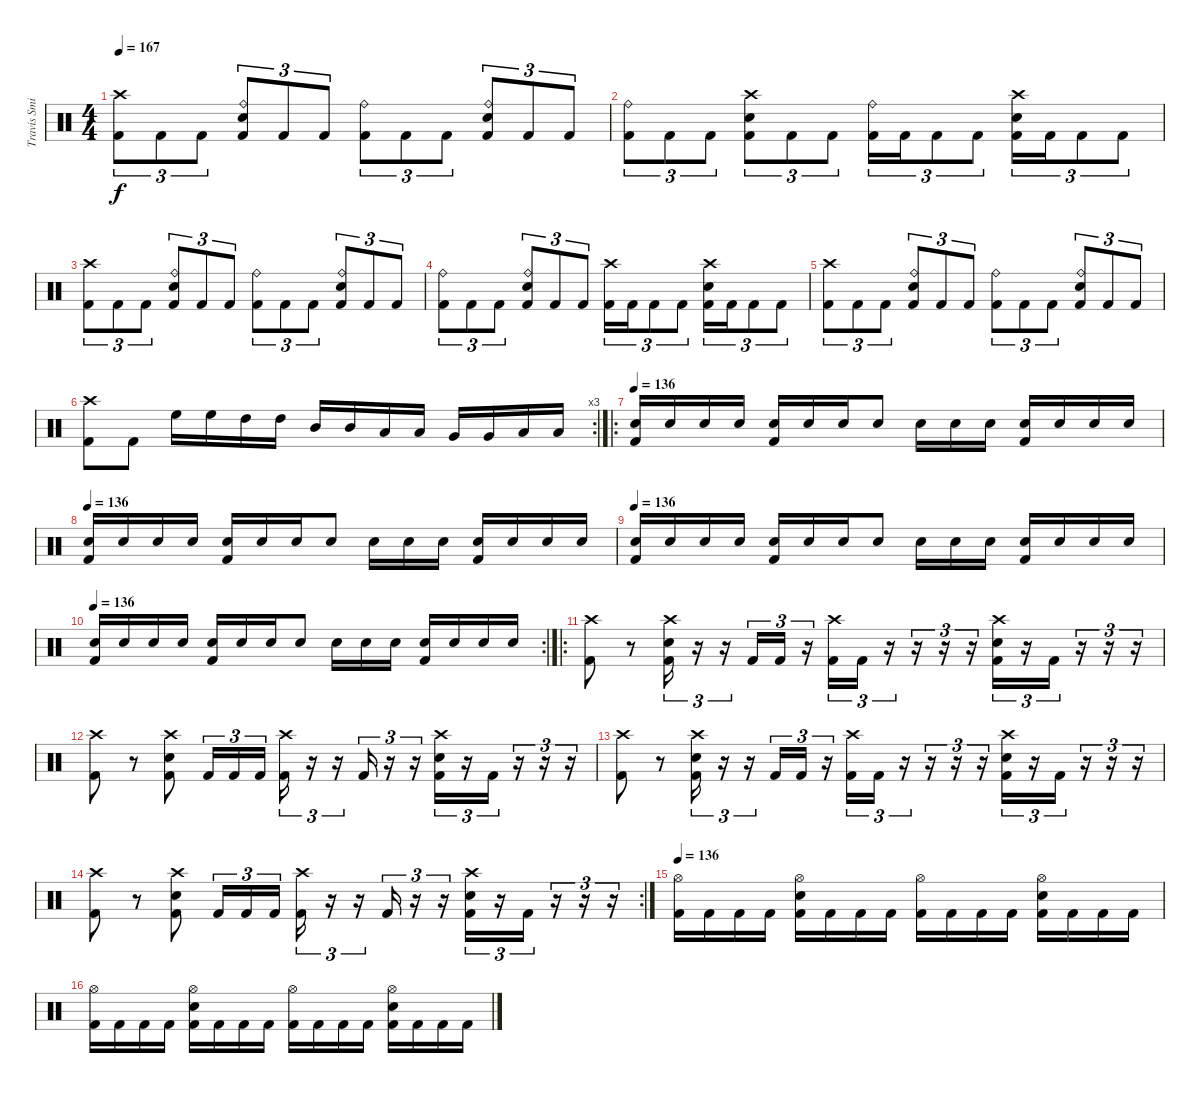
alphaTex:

\track ("Travis Smith" "Travis Smi") {instrument percussion}
\staff {score}
\articulation defaults
\ts (4 4)
\tempo 167
\clef neutral
\ks c
("Crash high (hit)" "Kick (hit) 2").8{tu (3 2) dy f} "Kick (hit) 2".8{tu (3 2)} "Kick (hit) 2".8{tu (3 2)} ("Ride (bell)" "Snare (hit) 2" "Kick (hit) 2").8{tu (3 2)} "Kick (hit) 2".8{tu (3 2)} "Kick (hit) 2".8{tu (3 2)} ("Ride (bell)" "Kick (hit) 2").8{tu (3 2)} "Kick (hit) 2".8{tu (3 2)} "Kick (hit) 2".8{tu (3 2)} ("Ride (bell)" "Snare (hit) 2" "Kick (hit) 2").8{tu (3 2)} "Kick (hit) 2".8{tu (3 2)} "Kick (hit) 2".8{tu (3 2)} |
("Ride (bell)" "Kick (hit) 2").8{tu (3 2)} "Kick (hit) 2".8{tu (3 2)} "Kick (hit) 2".8{tu (3 2)} ("Crash high (hit)" "Snare (hit) 2" "Kick (hit) 2").8{tu (3 2)} "Kick (hit) 2".8{tu (3 2)} "Kick (hit) 2".8{tu (3 2)} ("Ride (bell)" "Kick (hit) 2").16{tu (3 2)} "Kick (hit) 2".16{tu (3 2)} "Kick (hit) 2".8{tu (3 2)} "Kick (hit) 2".8{tu (3 2)} ("Crash high (hit)" "Snare (hit) 2" "Kick (hit) 2").16{tu (3 2)} "Kick (hit) 2".16{tu (3 2)} "Kick (hit) 2".8{tu (3 2)} "Kick (hit) 2".8{tu (3 2)} |
("Crash high (hit)" "Kick (hit) 2").8{tu (3 2)} "Kick (hit) 2".8{tu (3 2)} "Kick (hit) 2".8{tu (3 2)} ("Ride (bell)" "Snare (hit) 2" "Kick (hit) 2").8{tu (3 2)} "Kick (hit) 2".8{tu (3 2)} "Kick (hit) 2".8{tu (3 2)} ("Ride (bell)" "Kick (hit) 2").8{tu (3 2)} "Kick (hit) 2".8{tu (3 2)} "Kick (hit) 2".8{tu (3 2)} ("Ride (bell)" "Snare (hit) 2" "Kick (hit) 2").8{tu (3 2)} "Kick (hit) 2".8{tu (3 2)} "Kick (hit) 2".8{tu (3 2)} |
("Ride (bell)" "Kick (hit) 2").8{tu (3 2)} "Kick (hit) 2".8{tu (3 2)} "Kick (hit) 2".8{tu (3 2)} ("Ride (bell)" "Snare (hit) 2" "Kick (hit) 2").8{tu (3 2)} "Kick (hit) 2".8{tu (3 2)} "Kick (hit) 2".8{tu (3 2)} ("Crash high (hit)" "Kick (hit) 2").16{tu (3 2)} "Kick (hit) 2".16{tu (3 2)} "Kick (hit) 2".8{tu (3 2)} "Kick (hit) 2".8{tu (3 2)} ("Crash high (hit)" "Snare (hit) 2" "Kick (hit) 2").16{tu (3 2)} "Kick (hit) 2".16{tu (3 2)} "Kick (hit) 2".8{tu (3 2)} "Kick (hit) 2".8{tu (3 2)} |
("Crash high (hit)" "Kick (hit) 2").8{tu (3 2)} "Kick (hit) 2".8{tu (3 2)} "Kick (hit) 2".8{tu (3 2)} ("Ride (bell)" "Snare (hit) 2" "Kick (hit) 2").8{tu (3 2)} "Kick (hit) 2".8{tu (3 2)} "Kick (hit) 2".8{tu (3 2)} ("Ride (bell)" "Kick (hit) 2").8{tu (3 2)} "Kick (hit) 2".8{tu (3 2)} "Kick (hit) 2".8{tu (3 2)} ("Ride (bell)" "Snare (hit) 2" "Kick (hit) 2").8{tu (3 2)} "Kick (hit) 2".8{tu (3 2)} "Kick (hit) 2".8{tu (3 2)} |
\rc 3
("Crash high (hit)" "Kick (hit) 2").8 "Kick (hit) 2".8 "High Floor Tom (hit)".16 "High Floor Tom (hit)".16 "High Tom (hit)".16 "High Tom (hit)".16 "Mid Tom (hit)".16 "Mid Tom (hit)".16 "Low Tom (hit)".16 "Low Tom (hit)".16 "Very Low Tom (hit)".16 "Very Low Tom (hit)".16 "Low Floor Tom (hit)".16 "Low Floor Tom (hit)".16 |
\ro
\tempo 136
("Kick (hit) 2" "Snare (hit) 2").16 "Snare (hit) 2".16 "Snare (hit) 2".16 "Snare (hit) 2".16 ("Kick (hit) 2" "Snare (hit) 2").16 "Snare (hit) 2".16 "Snare (hit) 2".16 "Snare (hit) 2".8 "Snare (hit) 2".16 "Snare (hit) 2".16 "Snare (hit) 2".16 ("Kick (hit) 2" "Snare (hit) 2").16 "Snare (hit) 2".16 "Snare (hit) 2".16 "Snare (hit) 2".16 |
\tempo 136
("Kick (hit) 2" "Snare (hit) 2").16 "Snare (hit) 2".16 "Snare (hit) 2".16 "Snare (hit) 2".16 ("Kick (hit) 2" "Snare (hit) 2").16 "Snare (hit) 2".16 "Snare (hit) 2".16 "Snare (hit) 2".8 "Snare (hit) 2".16 "Snare (hit) 2".16 "Snare (hit) 2".16 ("Kick (hit) 2" "Snare (hit) 2").16 "Snare (hit) 2".16 "Snare (hit) 2".16 "Snare (hit) 2".16 |
\tempo 136
("Kick (hit) 2" "Snare (hit) 2").16 "Snare (hit) 2".16 "Snare (hit) 2".16 "Snare (hit) 2".16 ("Kick (hit) 2" "Snare (hit) 2").16 "Snare (hit) 2".16 "Snare (hit) 2".16 "Snare (hit) 2".8 "Snare (hit) 2".16 "Snare (hit) 2".16 "Snare (hit) 2".16 ("Kick (hit) 2" "Snare (hit) 2").16 "Snare (hit) 2".16 "Snare (hit) 2".16 "Snare (hit) 2".16 |
\rc 2
\tempo 136
("Kick (hit) 2" "Snare (hit) 2").16 "Snare (hit) 2".16 "Snare (hit) 2".16 "Snare (hit) 2".16 ("Kick (hit) 2" "Snare (hit) 2").16 "Snare (hit) 2".16 "Snare (hit) 2".16 "Snare (hit) 2".8 "Snare (hit) 2".16 "Snare (hit) 2".16 "Snare (hit) 2".16 ("Kick (hit) 2" "Snare (hit) 2").16 "Snare (hit) 2".16 "Snare (hit) 2".16 "Snare (hit) 2".16 |
\ro
("Crash high (hit)" "Kick (hit) 2").8 r.8 ("Crash high (hit)" "Snare (hit) 2" "Kick (hit) 2").16{tu (3 2)} r.16{tu (3 2)} r.16{tu (3 2)} "Kick (hit) 2".16{tu (3 2)} "Kick (hit) 2".16{tu (3 2)} r.16{tu (3 2)} ("Crash high (hit)" "Kick (hit) 2").16{tu (3 2)} "Kick (hit) 2".16{tu (3 2)} r.16{tu (3 2)} r.16{tu (3 2)} r.16{tu (3 2)} r.16{tu (3 2)} ("Crash high (hit)" "Snare (hit) 2" "Kick (hit) 2").16{tu (3 2)} r.16{tu (3 2)} "Kick (hit) 2".16{tu (3 2)} r.16{tu (3 2)} r.16{tu (3 2)} r.16{tu (3 2)} |
("Crash high (hit)" "Kick (hit) 2").8 r.8 ("Crash high (hit)" "Snare (hit) 2" "Kick (hit) 2").8 "Kick (hit) 2".16{tu (3 2)} "Kick (hit) 2".16{tu (3 2)} "Kick (hit) 2".16{tu (3 2)} ("Crash high (hit)" "Kick (hit) 2").16{tu (3 2)} r.16{tu (3 2)} r.16{tu (3 2)} "Kick (hit) 2".16{tu (3 2)} r.16{tu (3 2)} r.16{tu (3 2)} ("Crash high (hit)" "Snare (hit) 2" "Kick (hit) 2").16{tu (3 2)} r.16{tu (3 2)} "Kick (hit) 2".16{tu (3 2)} r.16{tu (3 2)} r.16{tu (3 2)} r.16{tu (3 2)} |
("Crash high (hit)" "Kick (hit) 2").8 r.8 ("Crash high (hit)" "Snare (hit) 2" "Kick (hit) 2").16{tu (3 2)} r.16{tu (3 2)} r.16{tu (3 2)} "Kick (hit) 2".16{tu (3 2)} "Kick (hit) 2".16{tu (3 2)} r.16{tu (3 2)} ("Crash high (hit)" "Kick (hit) 2").16{tu (3 2)} "Kick (hit) 2".16{tu (3 2)} r.16{tu (3 2)} r.16{tu (3 2)} r.16{tu (3 2)} r.16{tu (3 2)} ("Crash high (hit)" "Snare (hit) 2" "Kick (hit) 2").16{tu (3 2)} r.16{tu (3 2)} "Kick (hit) 2".16{tu (3 2)} r.16{tu (3 2)} r.16{tu (3 2)} r.16{tu (3 2)} |
\rc 2
("Crash high (hit)" "Kick (hit) 2").8 r.8 ("Crash high (hit)" "Snare (hit) 2" "Kick (hit) 2").8 "Kick (hit) 2".16{tu (3 2)} "Kick (hit) 2".16{tu (3 2)} "Kick (hit) 2".16{tu (3 2)} ("Crash high (hit)" "Kick (hit) 2").16{tu (3 2)} r.16{tu (3 2)} r.16{tu (3 2)} "Kick (hit) 2".16{tu (3 2)} r.16{tu (3 2)} r.16{tu (3 2)} ("Crash high (hit)" "Snare (hit) 2" "Kick (hit) 2").16{tu (3 2)} r.16{tu (3 2)} "Kick (hit) 2".16{tu (3 2)} r.16{tu (3 2)} r.16{tu (3 2)} r.16{tu (3 2)} |
\tempo 136
("Hi-Hat (open)" "Kick (hit) 2").16 "Kick (hit) 2".16 "Kick (hit) 2".16 "Kick (hit) 2".16 ("Hi-Hat (open)" "Snare (hit) 2" "Kick (hit) 2").16 "Kick (hit) 2".16 "Kick (hit) 2".16 "Kick (hit) 2".16 ("Hi-Hat (open)" "Kick (hit) 2").16 "Kick (hit) 2".16 "Kick (hit) 2".16 "Kick (hit) 2".16 ("Hi-Hat (open)" "Snare (hit) 2" "Kick (hit) 2").16 "Kick (hit) 2".16 "Kick (hit) 2".16 "Kick (hit) 2".16 |
("Hi-Hat (open)" "Kick (hit) 2").16 "Kick (hit) 2".16 "Kick (hit) 2".16 "Kick (hit) 2".16 ("Hi-Hat (open)" "Snare (hit) 2" "Kick (hit) 2").16 "Kick (hit) 2".16 "Kick (hit) 2".16 "Kick (hit) 2".16 ("Hi-Hat (open)" "Kick (hit) 2").16 "Kick (hit) 2".16 "Kick (hit) 2".16 "Kick (hit) 2".16 ("Hi-Hat (open)" "Snare (hit) 2" "Kick (hit) 2").16 "Kick (hit) 2".16 "Kick (hit) 2".16 "Kick (hit) 2".16
